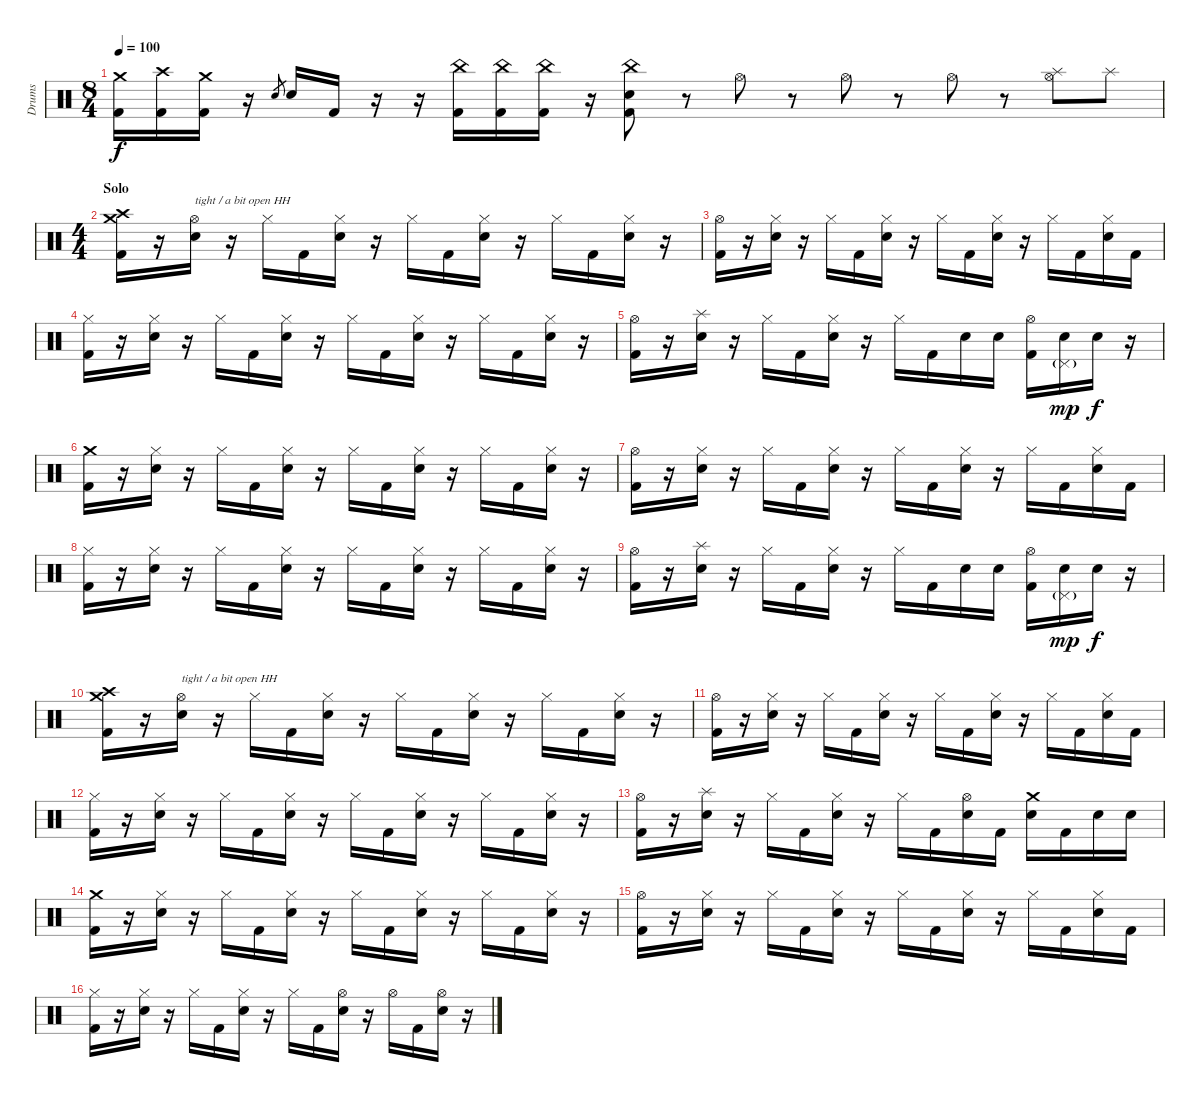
\track ("Drums" "Drums") {instrument percussion}
\staff {score}
\articulation defaults
\ts (8 4)
\tempo 100
\clef neutral
\ks c
("Crash medium (hit)" "Kick (hit) 2").16{dy f} ("Crash high (hit)" "Kick (hit) 2").16 ("Crash medium (hit)" "Kick (hit) 2").16 r.16 "Electric Snare (hit)".8{gr} "Electric Snare (hit)".16 "Kick (hit) 2".16 r.16 r.16 ("China (hit)" "Kick (hit) 2").16 ("China (hit)" "Kick (hit) 2").16 ("China (hit)" "Kick (hit) 2").16 r.16 ("China (hit)" "Electric Snare (hit)" "Kick (hit) 2").8 r.8 "Hi-Hat (open)".8 r.8 "Hi-Hat (open)".8 r.8 "Hi-Hat (open)".8 r.8 ("Hi-Hat (open)" "Splash (hit)").8 "Splash (hit)".8 |
\ts (4 4)
\section ("" "Solo")
("Crash medium (hit)" "Crash high (hit)" "Kick (hit) 2").16 r.16 ("Hi-Hat (open)" "Electric Snare (hit)").16{txt "tight / a bit open HH"} r.16 "Hi-Hat (closed)".16 "Kick (hit) 2".16 ("Hi-Hat (closed)" "Electric Snare (hit)").16 r.16 "Hi-Hat (closed)".16 "Kick (hit) 2".16 ("Hi-Hat (closed)" "Electric Snare (hit)").16 r.16 "Hi-Hat (closed)".16 "Kick (hit) 2".16 ("Hi-Hat (closed)" "Electric Snare (hit)").16 r.16 |
("Hi-Hat (open)" "Kick (hit) 2").16 r.16 ("Hi-Hat (closed)" "Electric Snare (hit)").16 r.16 "Hi-Hat (closed)".16 "Kick (hit) 2".16 ("Hi-Hat (closed)" "Electric Snare (hit)").16 r.16 "Hi-Hat (closed)".16 "Kick (hit) 2".16 ("Hi-Hat (closed)" "Electric Snare (hit)").16 r.16 "Hi-Hat (closed)".16 "Kick (hit) 2".16 ("Hi-Hat (closed)" "Electric Snare (hit)").16 "Kick (hit) 2".16 |
("Hi-Hat (closed)" "Kick (hit) 2").16 r.16 ("Hi-Hat (closed)" "Electric Snare (hit)").16 r.16 "Hi-Hat (closed)".16 "Kick (hit) 2".16 ("Hi-Hat (closed)" "Electric Snare (hit)").16 r.16 "Hi-Hat (closed)".16 "Kick (hit) 2".16 ("Hi-Hat (closed)" "Electric Snare (hit)").16 r.16 "Hi-Hat (closed)".16 "Kick (hit) 2".16 ("Hi-Hat (closed)" "Electric Snare (hit)").16 r.16 |
("Hi-Hat (open)" "Kick (hit) 2").16 r.16 ("Splash (hit)" "Electric Snare (hit)").16 r.16 "Hi-Hat (closed)".16 "Kick (hit) 2".16 ("Hi-Hat (closed)" "Electric Snare (hit)").16 r.16 "Hi-Hat (closed)".16 "Kick (hit) 2".16 "Electric Snare (hit)".16 "Electric Snare (hit)".16 ("Hi-Hat (open)" "Kick (hit) 2").16 ("Pedal Hi-Hat (hit)"{g} "Electric Snare (hit)").16{dy mp} "Electric Snare (hit)".16{dy f} r.16 |
("Crash medium (hit)" "Kick (hit) 2").16 r.16 ("Hi-Hat (closed)" "Electric Snare (hit)").16 r.16 "Hi-Hat (closed)".16 "Kick (hit) 2".16 ("Hi-Hat (closed)" "Electric Snare (hit)").16 r.16 "Hi-Hat (closed)".16 "Kick (hit) 2".16 ("Hi-Hat (closed)" "Electric Snare (hit)").16 r.16 "Hi-Hat (closed)".16 "Kick (hit) 2".16 ("Hi-Hat (closed)" "Electric Snare (hit)").16 r.16 |
("Hi-Hat (open)" "Kick (hit) 2").16 r.16 ("Hi-Hat (closed)" "Electric Snare (hit)").16 r.16 "Hi-Hat (closed)".16 "Kick (hit) 2".16 ("Hi-Hat (closed)" "Electric Snare (hit)").16 r.16 "Hi-Hat (closed)".16 "Kick (hit) 2".16 ("Hi-Hat (closed)" "Electric Snare (hit)").16 r.16 "Hi-Hat (closed)".16 "Kick (hit) 2".16 ("Hi-Hat (closed)" "Electric Snare (hit)").16 "Kick (hit) 2".16 |
("Hi-Hat (closed)" "Kick (hit) 2").16 r.16 ("Hi-Hat (closed)" "Electric Snare (hit)").16 r.16 "Hi-Hat (closed)".16 "Kick (hit) 2".16 ("Hi-Hat (closed)" "Electric Snare (hit)").16 r.16 "Hi-Hat (closed)".16 "Kick (hit) 2".16 ("Hi-Hat (closed)" "Electric Snare (hit)").16 r.16 "Hi-Hat (closed)".16 "Kick (hit) 2".16 ("Hi-Hat (closed)" "Electric Snare (hit)").16 r.16 |
("Hi-Hat (open)" "Kick (hit) 2").16 r.16 ("Splash (hit)" "Electric Snare (hit)").16 r.16 "Hi-Hat (closed)".16 "Kick (hit) 2".16 ("Hi-Hat (closed)" "Electric Snare (hit)").16 r.16 "Hi-Hat (closed)".16 "Kick (hit) 2".16 "Electric Snare (hit)".16 "Electric Snare (hit)".16 ("Hi-Hat (open)" "Kick (hit) 2").16 ("Pedal Hi-Hat (hit)"{g} "Electric Snare (hit)").16{dy mp} "Electric Snare (hit)".16{dy f} r.16 |
("Crash medium (hit)" "Crash high (hit)" "Kick (hit) 2").16 r.16 ("Hi-Hat (open)" "Electric Snare (hit)").16{txt "tight / a bit open HH"} r.16 "Hi-Hat (closed)".16 "Kick (hit) 2".16 ("Hi-Hat (closed)" "Electric Snare (hit)").16 r.16 "Hi-Hat (closed)".16 "Kick (hit) 2".16 ("Hi-Hat (closed)" "Electric Snare (hit)").16 r.16 "Hi-Hat (closed)".16 "Kick (hit) 2".16 ("Hi-Hat (closed)" "Electric Snare (hit)").16 r.16 |
("Hi-Hat (open)" "Kick (hit) 2").16 r.16 ("Hi-Hat (closed)" "Electric Snare (hit)").16 r.16 "Hi-Hat (closed)".16 "Kick (hit) 2".16 ("Hi-Hat (closed)" "Electric Snare (hit)").16 r.16 "Hi-Hat (closed)".16 "Kick (hit) 2".16 ("Hi-Hat (closed)" "Electric Snare (hit)").16 r.16 "Hi-Hat (closed)".16 "Kick (hit) 2".16 ("Hi-Hat (closed)" "Electric Snare (hit)").16 "Kick (hit) 2".16 |
("Hi-Hat (closed)" "Kick (hit) 2").16 r.16 ("Hi-Hat (closed)" "Electric Snare (hit)").16 r.16 "Hi-Hat (closed)".16 "Kick (hit) 2".16 ("Hi-Hat (closed)" "Electric Snare (hit)").16 r.16 "Hi-Hat (closed)".16 "Kick (hit) 2".16 ("Hi-Hat (closed)" "Electric Snare (hit)").16 r.16 "Hi-Hat (closed)".16 "Kick (hit) 2".16 ("Hi-Hat (closed)" "Electric Snare (hit)").16 r.16 |
("Hi-Hat (open)" "Kick (hit) 2").16 r.16 ("Splash (hit)" "Electric Snare (hit)").16 r.16 "Hi-Hat (closed)".16 "Kick (hit) 2".16 ("Hi-Hat (closed)" "Electric Snare (hit)").16 r.16 "Hi-Hat (closed)".16 "Kick (hit) 2".16 ("Hi-Hat (open)" "Electric Snare (hit)").16 "Kick (hit) 2".16 ("Crash medium (hit)" "Electric Snare (hit)").16 "Kick (hit) 2".16 "Electric Snare (hit)".16 "Electric Snare (hit)".16 |
("Crash medium (hit)" "Kick (hit) 2").16 r.16 ("Hi-Hat (closed)" "Electric Snare (hit)").16 r.16 "Hi-Hat (closed)".16 "Kick (hit) 2".16 ("Hi-Hat (closed)" "Electric Snare (hit)").16 r.16 "Hi-Hat (closed)".16 "Kick (hit) 2".16 ("Hi-Hat (closed)" "Electric Snare (hit)").16 r.16 "Hi-Hat (closed)".16 "Kick (hit) 2".16 ("Hi-Hat (closed)" "Electric Snare (hit)").16 r.16 |
("Hi-Hat (open)" "Kick (hit) 2").16 r.16 ("Hi-Hat (closed)" "Electric Snare (hit)").16 r.16 "Hi-Hat (closed)".16 "Kick (hit) 2".16 ("Hi-Hat (closed)" "Electric Snare (hit)").16 r.16 "Hi-Hat (closed)".16 "Kick (hit) 2".16 ("Hi-Hat (closed)" "Electric Snare (hit)").16 r.16 "Hi-Hat (closed)".16 "Kick (hit) 2".16 ("Hi-Hat (closed)" "Electric Snare (hit)").16 "Kick (hit) 2".16 |
("Hi-Hat (closed)" "Kick (hit) 2").16 r.16 ("Hi-Hat (closed)" "Electric Snare (hit)").16 r.16 "Hi-Hat (closed)".16 "Kick (hit) 2".16 ("Hi-Hat (closed)" "Electric Snare (hit)").16 r.16 "Hi-Hat (closed)".16 "Kick (hit) 2".16 ("Hi-Hat (open)" "Electric Snare (hit)").16 r.16 "Hi-Hat (open)".16 "Kick (hit) 2".16 ("Hi-Hat (open)" "Electric Snare (hit)").16 r.16
